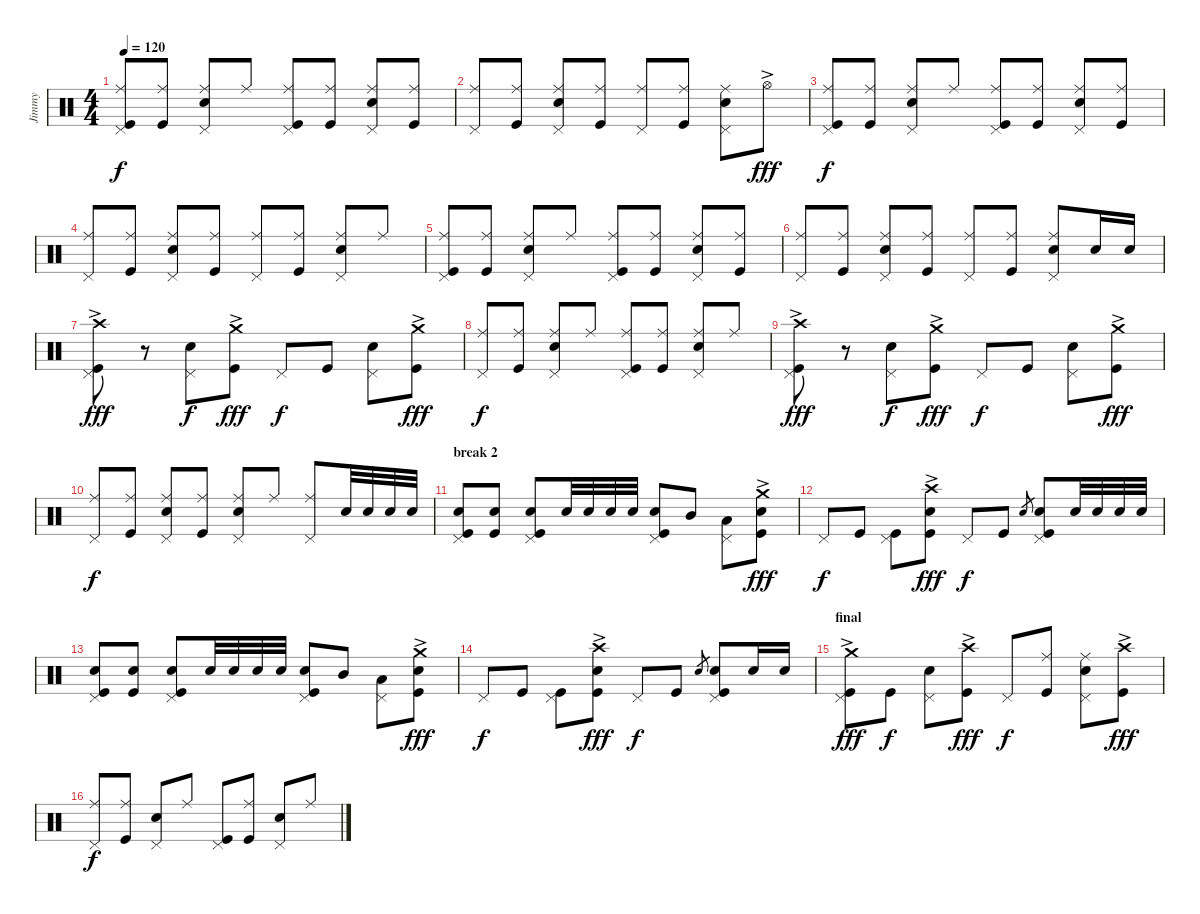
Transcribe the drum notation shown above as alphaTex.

\track ("Jimmy" "Jimmy") {instrument percussion}
\staff {score}
\articulation defaults
\ts (4 4)
\tempo 120
\clef neutral
\ks c
("Pedal Hi-Hat (hit)" "Ride (middle)" "Kick (hit)").8{dy f} ("Ride (middle)" "Kick (hit)").8 ("Pedal Hi-Hat (hit)" "Ride (middle)" "Snare (hit) 2").8 "Ride (middle)".8 ("Pedal Hi-Hat (hit)" "Ride (middle)" "Kick (hit)").8 ("Ride (middle)" "Kick (hit)").8 ("Pedal Hi-Hat (hit)" "Ride (middle)" "Snare (hit) 2").8 ("Ride (middle)" "Kick (hit)").8 |
("Pedal Hi-Hat (hit)" "Ride (middle)").8 ("Ride (middle)" "Kick (hit)").8 ("Pedal Hi-Hat (hit)" "Ride (middle)" "Snare (hit) 2").8 ("Ride (middle)" "Kick (hit)").8 ("Pedal Hi-Hat (hit)" "Ride (middle)").8 ("Ride (middle)" "Kick (hit)").8 ("Pedal Hi-Hat (hit)" "Ride (middle)" "Snare (hit) 2").8 "Hi-Hat (open)"{ac}.8{dy fff} |
("Pedal Hi-Hat (hit)" "Ride (middle)" "Kick (hit)").8{dy f} ("Ride (middle)" "Kick (hit)").8 ("Pedal Hi-Hat (hit)" "Ride (middle)" "Snare (hit) 2").8 "Ride (middle)".8 ("Pedal Hi-Hat (hit)" "Ride (middle)" "Kick (hit)").8 ("Ride (middle)" "Kick (hit)").8 ("Pedal Hi-Hat (hit)" "Ride (middle)" "Snare (hit) 2").8 ("Ride (middle)" "Kick (hit)").8 |
("Pedal Hi-Hat (hit)" "Ride (middle)").8 ("Ride (middle)" "Kick (hit)").8 ("Pedal Hi-Hat (hit)" "Ride (middle)" "Snare (hit) 2").8 ("Ride (middle)" "Kick (hit)").8 ("Pedal Hi-Hat (hit)" "Ride (middle)").8 ("Ride (middle)" "Kick (hit)").8 ("Pedal Hi-Hat (hit)" "Ride (middle)" "Snare (hit) 2").8 "Ride (middle)".8 |
("Pedal Hi-Hat (hit)" "Ride (middle)" "Kick (hit)").8 ("Ride (middle)" "Kick (hit)").8 ("Pedal Hi-Hat (hit)" "Ride (middle)" "Snare (hit) 2").8 "Ride (middle)".8 ("Pedal Hi-Hat (hit)" "Ride (middle)" "Kick (hit)").8 ("Ride (middle)" "Kick (hit)").8 ("Pedal Hi-Hat (hit)" "Ride (middle)" "Snare (hit) 2").8 ("Ride (middle)" "Kick (hit)").8 |
("Pedal Hi-Hat (hit)" "Ride (middle)").8 ("Ride (middle)" "Kick (hit)").8 ("Pedal Hi-Hat (hit)" "Ride (middle)" "Snare (hit) 2").8 ("Ride (middle)" "Kick (hit)").8 ("Pedal Hi-Hat (hit)" "Ride (middle)").8 ("Ride (middle)" "Kick (hit)").8 ("Pedal Hi-Hat (hit)" "Ride (middle)" "Snare (hit) 2").8 "Snare (hit) 2".16 "Snare (hit) 2".16 |
("Pedal Hi-Hat (hit)" "Crash high (hit)"{ac} "Kick (hit)").8{dy fff} r.8 ("Pedal Hi-Hat (hit)" "Snare (hit) 2").8{dy f} ("Crash medium (hit)"{ac} "Kick (hit)").8{dy fff} "Pedal Hi-Hat (hit)".8{dy f} "Kick (hit)".8 ("Pedal Hi-Hat (hit)" "Snare (hit) 2").8 ("Crash medium (hit)"{ac} "Kick (hit)").8{dy fff} |
("Pedal Hi-Hat (hit)" "Ride (middle)").8{dy f} ("Ride (middle)" "Kick (hit)").8 ("Pedal Hi-Hat (hit)" "Ride (middle)" "Snare (hit) 2").8 "Ride (middle)".8 ("Pedal Hi-Hat (hit)" "Ride (middle)" "Kick (hit)").8 ("Ride (middle)" "Kick (hit)").8 ("Pedal Hi-Hat (hit)" "Ride (middle)" "Snare (hit) 2").8 "Ride (middle)".8 |
("Pedal Hi-Hat (hit)" "Crash high (hit)"{ac} "Kick (hit)").8{dy fff} r.8 ("Pedal Hi-Hat (hit)" "Snare (hit) 2").8{dy f} ("Crash medium (hit)"{ac} "Kick (hit)").8{dy fff} "Pedal Hi-Hat (hit)".8{dy f} "Kick (hit)".8 ("Pedal Hi-Hat (hit)" "Snare (hit) 2").8 ("Crash medium (hit)"{ac} "Kick (hit)").8{dy fff} |
("Pedal Hi-Hat (hit)" "Ride (middle)").8{dy f} ("Ride (middle)" "Kick (hit)").8 ("Pedal Hi-Hat (hit)" "Ride (middle)" "Snare (hit) 2").8 ("Ride (middle)" "Kick (hit)").8 ("Pedal Hi-Hat (hit)" "Ride (middle)" "Snare (hit) 2").8 "Ride (middle)".8 ("Pedal Hi-Hat (hit)" "Ride (middle)").8 "Snare (hit) 2".32 "Snare (hit) 2".32 "Snare (hit) 2".32 "Snare (hit) 2".32 |
\section ("" "break 2")
("Pedal Hi-Hat (hit)" "Kick (hit)" "Snare (hit) 2").8 ("Kick (hit)" "Snare (hit) 2").8 ("Pedal Hi-Hat (hit)" "Kick (hit)" "Snare (hit) 2").8 "Snare (hit) 2".32 "Snare (hit) 2".32 "Snare (hit) 2".32 "Snare (hit) 2".32 ("Pedal Hi-Hat (hit)" "Kick (hit)" "Snare (hit) 2").8 "Mid Tom (hit)".8 ("Pedal Hi-Hat (hit)" "Low Floor Tom (hit)").8 ("Crash medium (hit)"{ac} "Kick (hit)" "Snare (hit) 2").8{dy fff} |
"Pedal Hi-Hat (hit)".8{dy f} "Kick (hit)".8 ("Pedal Hi-Hat (hit)" "Kick (hit)").8 ("Crash high (hit)"{ac} "Kick (hit)" "Snare (hit) 2").8{dy fff} "Pedal Hi-Hat (hit)".8{dy f} "Kick (hit)".8 "Snare (hit) 2"{h}.8{gr} ("Pedal Hi-Hat (hit)" "Kick (hit)" "Snare (hit) 2").8 "Snare (hit) 2".32 "Snare (hit) 2".32 "Snare (hit) 2".32 "Snare (hit) 2".32 |
("Pedal Hi-Hat (hit)" "Kick (hit)" "Snare (hit) 2").8 ("Kick (hit)" "Snare (hit) 2").8 ("Pedal Hi-Hat (hit)" "Kick (hit)" "Snare (hit) 2").8 "Snare (hit) 2".32 "Snare (hit) 2".32 "Snare (hit) 2".32 "Snare (hit) 2".32 ("Pedal Hi-Hat (hit)" "Kick (hit)" "Snare (hit) 2").8 "Mid Tom (hit)".8 ("Pedal Hi-Hat (hit)" "Low Floor Tom (hit)").8 ("Crash medium (hit)"{ac} "Kick (hit)" "Snare (hit) 2").8{dy fff} |
"Pedal Hi-Hat (hit)".8{dy f} "Kick (hit)".8 ("Pedal Hi-Hat (hit)" "Kick (hit)").8 ("Crash high (hit)"{ac} "Kick (hit)" "Snare (hit) 2").8{dy fff} "Pedal Hi-Hat (hit)".8{dy f} "Kick (hit)".8 "Snare (hit) 2"{h}.8{gr} ("Pedal Hi-Hat (hit)" "Kick (hit)" "Snare (hit) 2").8 "Snare (hit) 2".16 "Snare (hit) 2".16 |
\section ("" "final")
("Pedal Hi-Hat (hit)" "Crash medium (hit)"{ac} "Kick (hit)").8{dy fff} "Kick (hit)".8{dy f} ("Pedal Hi-Hat (hit)" "Snare (hit) 2").8 ("Crash high (hit)"{ac} "Kick (hit)").8{dy fff} "Pedal Hi-Hat (hit)".8{dy f} ("Ride (middle)" "Kick (hit)").8 ("Pedal Hi-Hat (hit)" "Ride (middle)" "Snare (hit) 2").8 ("Crash high (hit)"{ac} "Kick (hit)").8{dy fff} |
("Pedal Hi-Hat (hit)" "Ride (middle)").8{dy f} ("Ride (middle)" "Kick (hit)").8 ("Pedal Hi-Hat (hit)" "Snare (hit) 2").8 "Ride (middle)".8 ("Pedal Hi-Hat (hit)" "Kick (hit)").8 ("Ride (middle)" "Kick (hit)").8 ("Pedal Hi-Hat (hit)" "Snare (hit) 2").8 "Ride (middle)".8
